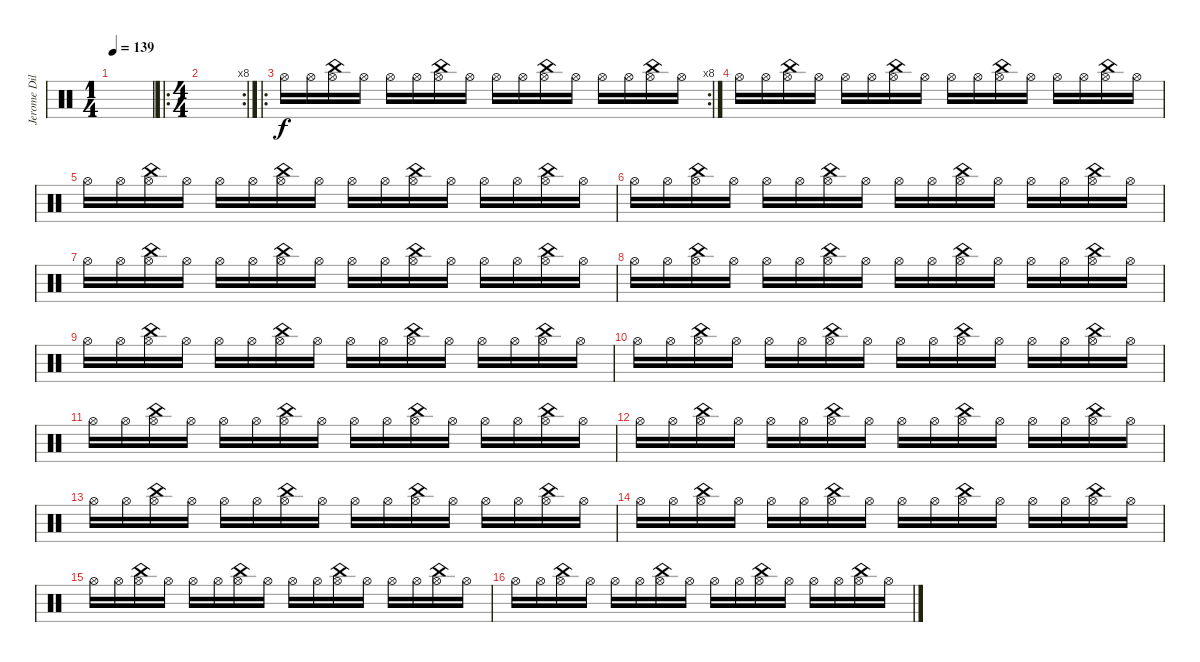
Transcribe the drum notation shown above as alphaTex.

\track ("Jerome Dillon - Batería 2" "Jerome Dil") {instrument percussion}
\staff {score}
\articulation defaults
\ts (1 4)
\tempo 139
\clef neutral
\ks c
|
\ro
\rc 8
\ts (4 4)
|
\ro
\rc 8 "Hi-Hat (open)".16 "Hi-Hat (open)".16
("Hi-Hat (open)" "China (hit)").16 "Hi-Hat (open)".16 "Hi-Hat (open)".16 "Hi-Hat (open)".16 ("Hi-Hat (open)" "China (hit)").16 "Hi-Hat (open)".16 "Hi-Hat (open)".16 "Hi-Hat (open)".16 ("Hi-Hat (open)" "China (hit)").16 "Hi-Hat (open)".16 "Hi-Hat (open)".16 "Hi-Hat (open)".16 ("Hi-Hat (open)" "China (hit)").16 "Hi-Hat (open)".16 |
"Hi-Hat (open)".16 "Hi-Hat (open)".16 ("Hi-Hat (open)" "China (hit)").16 "Hi-Hat (open)".16 "Hi-Hat (open)".16 "Hi-Hat (open)".16 ("Hi-Hat (open)" "China (hit)").16 "Hi-Hat (open)".16 "Hi-Hat (open)".16 "Hi-Hat (open)".16 ("Hi-Hat (open)" "China (hit)").16 "Hi-Hat (open)".16 "Hi-Hat (open)".16 "Hi-Hat (open)".16 ("Hi-Hat (open)" "China (hit)").16 "Hi-Hat (open)".16 |
"Hi-Hat (open)".16 "Hi-Hat (open)".16 ("Hi-Hat (open)" "China (hit)").16 "Hi-Hat (open)".16 "Hi-Hat (open)".16 "Hi-Hat (open)".16 ("Hi-Hat (open)" "China (hit)").16 "Hi-Hat (open)".16 "Hi-Hat (open)".16 "Hi-Hat (open)".16 ("Hi-Hat (open)" "China (hit)").16 "Hi-Hat (open)".16 "Hi-Hat (open)".16 "Hi-Hat (open)".16 ("Hi-Hat (open)" "China (hit)").16 "Hi-Hat (open)".16 |
"Hi-Hat (open)".16 "Hi-Hat (open)".16 ("Hi-Hat (open)" "China (hit)").16 "Hi-Hat (open)".16 "Hi-Hat (open)".16 "Hi-Hat (open)".16 ("Hi-Hat (open)" "China (hit)").16 "Hi-Hat (open)".16 "Hi-Hat (open)".16 "Hi-Hat (open)".16 ("Hi-Hat (open)" "China (hit)").16 "Hi-Hat (open)".16 "Hi-Hat (open)".16 "Hi-Hat (open)".16 ("Hi-Hat (open)" "China (hit)").16 "Hi-Hat (open)".16 |
"Hi-Hat (open)".16 "Hi-Hat (open)".16 ("Hi-Hat (open)" "China (hit)").16 "Hi-Hat (open)".16 "Hi-Hat (open)".16 "Hi-Hat (open)".16 ("Hi-Hat (open)" "China (hit)").16 "Hi-Hat (open)".16 "Hi-Hat (open)".16 "Hi-Hat (open)".16 ("Hi-Hat (open)" "China (hit)").16 "Hi-Hat (open)".16 "Hi-Hat (open)".16 "Hi-Hat (open)".16 ("Hi-Hat (open)" "China (hit)").16 "Hi-Hat (open)".16 |
"Hi-Hat (open)".16 "Hi-Hat (open)".16 ("Hi-Hat (open)" "China (hit)").16 "Hi-Hat (open)".16 "Hi-Hat (open)".16 "Hi-Hat (open)".16 ("Hi-Hat (open)" "China (hit)").16 "Hi-Hat (open)".16 "Hi-Hat (open)".16 "Hi-Hat (open)".16 ("Hi-Hat (open)" "China (hit)").16 "Hi-Hat (open)".16 "Hi-Hat (open)".16 "Hi-Hat (open)".16 ("Hi-Hat (open)" "China (hit)").16 "Hi-Hat (open)".16 |
"Hi-Hat (open)".16 "Hi-Hat (open)".16 ("Hi-Hat (open)" "China (hit)").16 "Hi-Hat (open)".16 "Hi-Hat (open)".16 "Hi-Hat (open)".16 ("Hi-Hat (open)" "China (hit)").16 "Hi-Hat (open)".16 "Hi-Hat (open)".16 "Hi-Hat (open)".16 ("Hi-Hat (open)" "China (hit)").16 "Hi-Hat (open)".16 "Hi-Hat (open)".16 "Hi-Hat (open)".16 ("Hi-Hat (open)" "China (hit)").16 "Hi-Hat (open)".16 |
"Hi-Hat (open)".16 "Hi-Hat (open)".16 ("Hi-Hat (open)" "China (hit)").16 "Hi-Hat (open)".16 "Hi-Hat (open)".16 "Hi-Hat (open)".16 ("Hi-Hat (open)" "China (hit)").16 "Hi-Hat (open)".16 "Hi-Hat (open)".16 "Hi-Hat (open)".16 ("Hi-Hat (open)" "China (hit)").16 "Hi-Hat (open)".16 "Hi-Hat (open)".16 "Hi-Hat (open)".16 ("Hi-Hat (open)" "China (hit)").16 "Hi-Hat (open)".16 |
"Hi-Hat (open)".16 "Hi-Hat (open)".16 ("Hi-Hat (open)" "China (hit)").16 "Hi-Hat (open)".16 "Hi-Hat (open)".16 "Hi-Hat (open)".16 ("Hi-Hat (open)" "China (hit)").16 "Hi-Hat (open)".16 "Hi-Hat (open)".16 "Hi-Hat (open)".16 ("Hi-Hat (open)" "China (hit)").16 "Hi-Hat (open)".16 "Hi-Hat (open)".16 "Hi-Hat (open)".16 ("Hi-Hat (open)" "China (hit)").16 "Hi-Hat (open)".16 |
"Hi-Hat (open)".16 "Hi-Hat (open)".16 ("Hi-Hat (open)" "China (hit)").16 "Hi-Hat (open)".16 "Hi-Hat (open)".16 "Hi-Hat (open)".16 ("Hi-Hat (open)" "China (hit)").16 "Hi-Hat (open)".16 "Hi-Hat (open)".16 "Hi-Hat (open)".16 ("Hi-Hat (open)" "China (hit)").16 "Hi-Hat (open)".16 "Hi-Hat (open)".16 "Hi-Hat (open)".16 ("Hi-Hat (open)" "China (hit)").16 "Hi-Hat (open)".16 |
"Hi-Hat (open)".16 "Hi-Hat (open)".16 ("Hi-Hat (open)" "China (hit)").16 "Hi-Hat (open)".16 "Hi-Hat (open)".16 "Hi-Hat (open)".16 ("Hi-Hat (open)" "China (hit)").16 "Hi-Hat (open)".16 "Hi-Hat (open)".16 "Hi-Hat (open)".16 ("Hi-Hat (open)" "China (hit)").16 "Hi-Hat (open)".16 "Hi-Hat (open)".16 "Hi-Hat (open)".16 ("Hi-Hat (open)" "China (hit)").16 "Hi-Hat (open)".16 |
"Hi-Hat (open)".16 "Hi-Hat (open)".16 ("Hi-Hat (open)" "China (hit)").16 "Hi-Hat (open)".16 "Hi-Hat (open)".16 "Hi-Hat (open)".16 ("Hi-Hat (open)" "China (hit)").16 "Hi-Hat (open)".16 "Hi-Hat (open)".16 "Hi-Hat (open)".16 ("Hi-Hat (open)" "China (hit)").16 "Hi-Hat (open)".16 "Hi-Hat (open)".16 "Hi-Hat (open)".16 ("Hi-Hat (open)" "China (hit)").16 "Hi-Hat (open)".16 |
"Hi-Hat (open)".16 "Hi-Hat (open)".16 ("Hi-Hat (open)" "China (hit)").16 "Hi-Hat (open)".16 "Hi-Hat (open)".16 "Hi-Hat (open)".16 ("Hi-Hat (open)" "China (hit)").16 "Hi-Hat (open)".16 "Hi-Hat (open)".16 "Hi-Hat (open)".16 ("Hi-Hat (open)" "China (hit)").16 "Hi-Hat (open)".16 "Hi-Hat (open)".16 "Hi-Hat (open)".16 ("Hi-Hat (open)" "China (hit)").16 "Hi-Hat (open)".16 |
"Hi-Hat (open)".16 "Hi-Hat (open)".16 ("Hi-Hat (open)" "China (hit)").16 "Hi-Hat (open)".16 "Hi-Hat (open)".16 "Hi-Hat (open)".16 ("Hi-Hat (open)" "China (hit)").16 "Hi-Hat (open)".16 "Hi-Hat (open)".16 "Hi-Hat (open)".16 ("Hi-Hat (open)" "China (hit)").16 "Hi-Hat (open)".16 "Hi-Hat (open)".16 "Hi-Hat (open)".16 ("Hi-Hat (open)" "China (hit)").16 "Hi-Hat (open)".16
